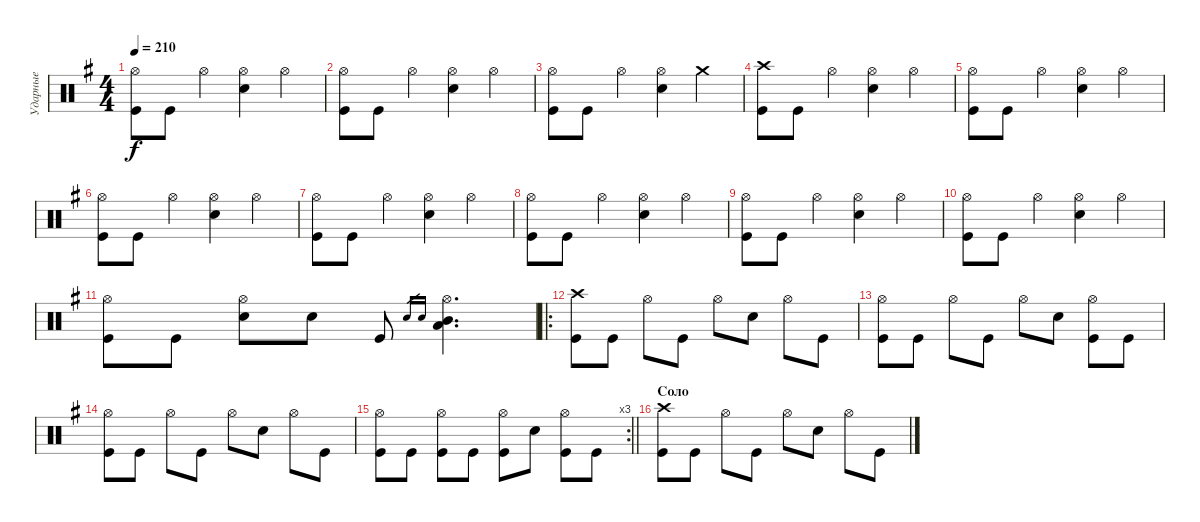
\track ("Ударные" "Ударные") {instrument percussion}
\staff {score}
\articulation defaults
\ts (4 4)
\tempo 210
\clef neutral
\ks g
("Hi-Hat (open)" "Kick (hit)").8{dy f} "Kick (hit)".8 "Hi-Hat (open)".4 ("Hi-Hat (open)" "Electric Snare (hit)").4 "Hi-Hat (open)".4 |
("Hi-Hat (open)" "Kick (hit)").8 "Kick (hit)".8 "Hi-Hat (open)".4 ("Hi-Hat (open)" "Electric Snare (hit)").4 "Hi-Hat (open)".4 |
("Hi-Hat (open)" "Kick (hit)").8 "Kick (hit)".8 "Hi-Hat (open)".4 ("Hi-Hat (open)" "Electric Snare (hit)").4 "Crash medium (hit)".4 |
("Crash high (hit)" "Kick (hit)").8 "Kick (hit)".8 "Hi-Hat (open)".4 ("Hi-Hat (open)" "Electric Snare (hit)").4 "Hi-Hat (open)".4 |
("Hi-Hat (open)" "Kick (hit)").8 "Kick (hit)".8 "Hi-Hat (open)".4 ("Hi-Hat (open)" "Electric Snare (hit)").4 "Hi-Hat (open)".4 |
("Hi-Hat (open)" "Kick (hit)").8 "Kick (hit)".8 "Hi-Hat (open)".4 ("Hi-Hat (open)" "Electric Snare (hit)").4 "Hi-Hat (open)".4 |
("Hi-Hat (open)" "Kick (hit)").8 "Kick (hit)".8 "Hi-Hat (open)".4 ("Hi-Hat (open)" "Electric Snare (hit)").4 "Hi-Hat (open)".4 |
("Hi-Hat (open)" "Kick (hit)").8 "Kick (hit)".8 "Hi-Hat (open)".4 ("Hi-Hat (open)" "Electric Snare (hit)").4 "Hi-Hat (open)".4 |
("Hi-Hat (open)" "Kick (hit)").8 "Kick (hit)".8 "Hi-Hat (open)".4 ("Hi-Hat (open)" "Electric Snare (hit)").4 "Hi-Hat (open)".4 |
("Hi-Hat (open)" "Kick (hit)").8 "Kick (hit)".8 "Hi-Hat (open)".4 ("Hi-Hat (open)" "Electric Snare (hit)").4 "Hi-Hat (open)".4 |
("Hi-Hat (open)" "Kick (hit)").8 "Kick (hit)".8 ("Hi-Hat (open)" "Electric Snare (hit)").8 "Electric Snare (hit)".8 "Kick (hit)".8 "Snare (hit) 2".16{gr} "Electric Snare (hit)".16{gr} ("Hi-Hat (open)" "Low Tom (hit)" "Mid Tom (hit)").4{d} |
\ro
("Crash high (hit)" "Kick (hit)").8 "Kick (hit)".8 "Hi-Hat (open)".8 "Kick (hit)".8 "Hi-Hat (open)".8 "Electric Snare (hit)".8 "Hi-Hat (open)".8 "Kick (hit)".8 |
("Hi-Hat (open)" "Kick (hit)").8 "Kick (hit)".8 "Hi-Hat (open)".8 "Kick (hit)".8 "Hi-Hat (open)".8 "Electric Snare (hit)".8 ("Hi-Hat (open)" "Kick (hit)").8 "Kick (hit)".8 |
("Hi-Hat (open)" "Kick (hit)").8 "Kick (hit)".8 "Hi-Hat (open)".8 "Kick (hit)".8 "Hi-Hat (open)".8 "Electric Snare (hit)".8 "Hi-Hat (open)".8 "Kick (hit)".8 |
\rc 3
\barLineRight lightlight
("Hi-Hat (open)" "Kick (hit)").8 "Kick (hit)".8 ("Hi-Hat (open)" "Kick (hit)").8 "Kick (hit)".8 ("Hi-Hat (open)" "Kick (hit)").8 "Electric Snare (hit)".8 ("Hi-Hat (open)" "Kick (hit)").8 "Kick (hit)".8 |
\section ("" "Соло")
("Crash high (hit)" "Kick (hit)").8 "Kick (hit)".8 "Hi-Hat (open)".8 "Kick (hit)".8 "Hi-Hat (open)".8 "Electric Snare (hit)".8 "Hi-Hat (open)".8 "Kick (hit)".8
